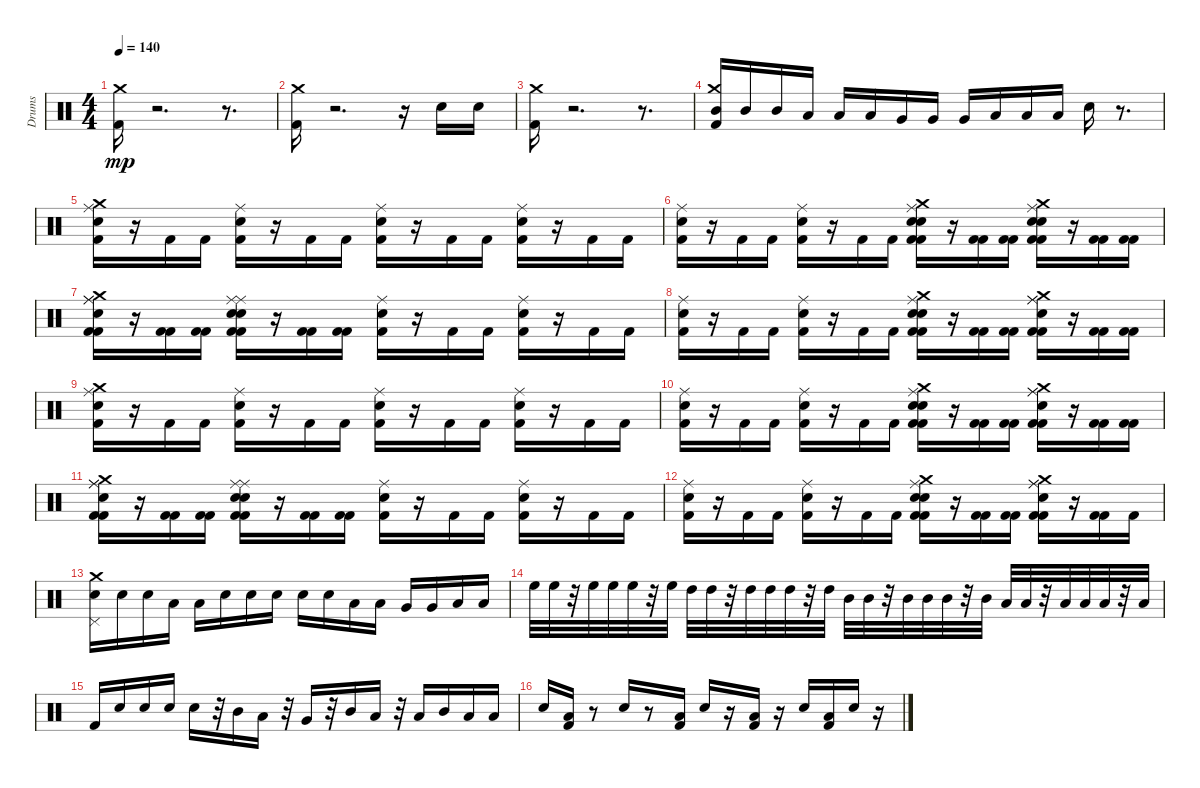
\track ("Drums" "Drums") {instrument percussion}
\staff {score}
\articulation defaults
\ts (4 4)
\tempo 140
\clef neutral
\ks c
("Kick (hit) 2" "Crash medium (hit)").16{dy mp} r.2{d} r.8{d} |
("Crash medium (hit)" "Kick (hit) 2").16 r.2{d} r.16 "Electric Snare (hit)".16 "Electric Snare (hit)".16 |
("Crash medium (hit)" "Kick (hit) 2").16 r.2{d} r.8{d} |
("Mid Tom (hit)" "Crash medium (hit)" "Kick (hit) 2").16 "Mid Tom (hit)".16 "Mid Tom (hit)".16 "Low Tom (hit)".16 "Low Tom (hit)".16 "Low Tom (hit)".16 "Very Low Tom (hit)".16 "Very Low Tom (hit)".16 "Very Low Tom (hit)".16 "Low Tom (hit)".16 "Low Tom (hit)".16 "Low Tom (hit)".16 "Electric Snare (hit)".16 r.8{d} |
("Crash medium (hit)" "Kick (hit) 2" "Electric Snare (hit)" "Ride (middle)").16 r.16 "Kick (hit) 2".16 "Kick (hit) 2".16 ("Ride (middle)" "Electric Snare (hit)" "Kick (hit) 2").16 r.16 "Kick (hit) 2".16 "Kick (hit) 2".16 ("Electric Snare (hit)" "Ride (middle)" "Kick (hit) 2").16 r.16 "Kick (hit) 2".16 "Kick (hit) 2".16 ("Electric Snare (hit)" "Ride (middle)" "Kick (hit) 2").16 r.16 "Kick (hit) 2".16 "Kick (hit) 2".16 |
("Kick (hit) 2" "Electric Snare (hit)" "Ride (middle)").16 r.16 "Kick (hit) 2".16 "Kick (hit) 2".16 ("Ride (middle)" "Kick (hit) 2" "Electric Snare (hit)").16 r.16 "Kick (hit) 2".16 "Kick (hit) 2".16 ("Crash medium (hit)" "Electric Snare (hit)" "Ride (middle)" "Kick (hit) 2" "Electric Snare (hit)" "Kick (hit) 2").16 r.16 ("Kick (hit) 2" "Kick (hit) 2").16 ("Kick (hit) 2" "Kick (hit) 2").16 ("Crash medium (hit)" "Kick (hit) 2" "Electric Snare (hit)" "Kick (hit) 2" "Ride (middle)" "Electric Snare (hit)").16 r.16 ("Kick (hit) 2" "Kick (hit) 2").16 ("Kick (hit) 2" "Kick (hit) 2").16 |
("Ride (middle)" "Crash medium (hit)" "Kick (hit) 2" "Ride (middle)" "Kick (hit) 2" "Electric Snare (hit)").16 r.16 ("Kick (hit) 2" "Kick (hit) 2").16 ("Kick (hit) 2" "Kick (hit) 2").16 ("Ride (middle)" "Electric Snare (hit)" "Electric Snare (hit)" "Kick (hit) 2" "Ride (middle)" "Kick (hit) 2").16 r.16 ("Kick (hit) 2" "Kick (hit) 2").16 ("Kick (hit) 2" "Kick (hit) 2").16 ("Electric Snare (hit)" "Ride (middle)" "Kick (hit) 2").16 r.16 "Kick (hit) 2".16 "Kick (hit) 2".16 ("Ride (middle)" "Electric Snare (hit)" "Kick (hit) 2").16 r.16 "Kick (hit) 2".16 "Kick (hit) 2".16 |
("Kick (hit) 2" "Electric Snare (hit)" "Ride (middle)").16 r.16 "Kick (hit) 2".16 "Kick (hit) 2".16 ("Ride (middle)" "Electric Snare (hit)" "Kick (hit) 2").16 r.16 "Kick (hit) 2".16 "Kick (hit) 2".16 ("Ride (middle)" "Kick (hit) 2" "Crash medium (hit)" "Kick (hit) 2" "Electric Snare (hit)" "Electric Snare (hit)").16 r.16 ("Kick (hit) 2" "Kick (hit) 2").16 ("Kick (hit) 2" "Kick (hit) 2").16 ("Electric Snare (hit)" "Kick (hit) 2" "Ride (middle)" "Kick (hit) 2" "Crash medium (hit)" "Ride (middle)").16 r.16 ("Kick (hit) 2" "Kick (hit) 2").16 ("Kick (hit) 2" "Kick (hit) 2").16 |
("Ride (middle)" "Crash medium (hit)" "Electric Snare (hit)" "Kick (hit) 2").16 r.16 "Kick (hit) 2".16 "Kick (hit) 2".16 ("Ride (middle)" "Kick (hit) 2" "Electric Snare (hit)").16 r.16 "Kick (hit) 2".16 "Kick (hit) 2".16 ("Electric Snare (hit)" "Kick (hit) 2" "Ride (middle)").16 r.16 "Kick (hit) 2".16 "Kick (hit) 2".16 ("Electric Snare (hit)" "Ride (middle)" "Kick (hit) 2").16 r.16 "Kick (hit) 2".16 "Kick (hit) 2".16 |
("Ride (middle)" "Electric Snare (hit)" "Kick (hit) 2").16 r.16 "Kick (hit) 2".16 "Kick (hit) 2".16 ("Electric Snare (hit)" "Kick (hit) 2" "Ride (middle)").16 r.16 "Kick (hit) 2".16 "Kick (hit) 2".16 ("Kick (hit) 2" "Electric Snare (hit)" "Kick (hit) 2" "Electric Snare (hit)" "Ride (middle)" "Crash medium (hit)").16 r.16 ("Kick (hit) 2" "Kick (hit) 2").16 ("Kick (hit) 2" "Kick (hit) 2").16 ("Electric Snare (hit)" "Crash medium (hit)" "Kick (hit) 2" "Ride (middle)" "Kick (hit) 2" "Ride (middle)").16 r.16 ("Kick (hit) 2" "Kick (hit) 2").16 ("Kick (hit) 2" "Kick (hit) 2").16 |
("Kick (hit) 2" "Crash medium (hit)" "Kick (hit) 2" "Ride (middle)" "Electric Snare (hit)" "Ride (middle)").16 r.16 ("Kick (hit) 2" "Kick (hit) 2").16 ("Kick (hit) 2" "Kick (hit) 2").16 ("Electric Snare (hit)" "Kick (hit) 2" "Electric Snare (hit)" "Ride (middle)" "Kick (hit) 2" "Ride (middle)").16 r.16 ("Kick (hit) 2" "Kick (hit) 2").16 ("Kick (hit) 2" "Kick (hit) 2").16 ("Electric Snare (hit)" "Kick (hit) 2" "Ride (middle)").16 r.16 "Kick (hit) 2".16 "Kick (hit) 2".16 ("Ride (middle)" "Electric Snare (hit)" "Kick (hit) 2").16 r.16 "Kick (hit) 2".16 "Kick (hit) 2".16 |
("Kick (hit) 2" "Ride (middle)" "Electric Snare (hit)").16 r.16 "Kick (hit) 2".16 "Kick (hit) 2".16 ("Kick (hit) 2" "Ride (middle)" "Electric Snare (hit)").16 r.16 "Kick (hit) 2".16 "Kick (hit) 2".16 ("Electric Snare (hit)" "Ride (middle)" "Kick (hit) 2" "Kick (hit) 2" "Crash medium (hit)" "Electric Snare (hit)").16 r.16 ("Kick (hit) 2" "Kick (hit) 2").16 ("Kick (hit) 2" "Kick (hit) 2").16 ("Ride (middle)" "Kick (hit) 2" "Kick (hit) 2" "Crash medium (hit)" "Electric Snare (hit)" "Ride (middle)").16 r.16 ("Kick (hit) 2" "Kick (hit) 2").16 "Kick (hit) 2".16 |
("Crash medium (hit)" "Pedal Hi-Hat (hit)" "Electric Snare (hit)").16 "Electric Snare (hit)".16 "Electric Snare (hit)".16 "Low Tom (hit)".16 "Low Tom (hit)".16 "Electric Snare (hit)".16 "Electric Snare (hit)".16 "Electric Snare (hit)".16 "Electric Snare (hit)".16 "Electric Snare (hit)".16 "Low Tom (hit)".16 "Low Tom (hit)".16 "Very Low Tom (hit)".16 "Very Low Tom (hit)".16 "Low Floor Tom (hit)".16 "Low Floor Tom (hit)".16 |
"High Floor Tom (hit)".32 "High Floor Tom (hit)".32 r.32 "High Floor Tom (hit)".32 "High Floor Tom (hit)".32 "High Floor Tom (hit)".32 r.32 "High Floor Tom (hit)".32 "High Tom (hit)".32 "High Tom (hit)".32 r.32 "High Tom (hit)".32 "High Tom (hit)".32 "High Tom (hit)".32 r.32 "High Tom (hit)".32 "Mid Tom (hit)".32 "Mid Tom (hit)".32 r.32 "Mid Tom (hit)".32 "Mid Tom (hit)".32 "Mid Tom (hit)".32 r.32 "Mid Tom (hit)".32 "Low Tom (hit)".32 "Low Tom (hit)".32 r.32 "Low Tom (hit)".32 "Low Tom (hit)".32 "Low Tom (hit)".32 r.32 "Low Tom (hit)".32 |
"Kick (hit) 2".16 "Electric Snare (hit)".16 "Electric Snare (hit)".16 "Electric Snare (hit)".16 "Electric Snare (hit)".16 r.32 "Mid Tom (hit)".16 "Low Tom (hit)".16 r.32 "Very Low Tom (hit)".16 r.32 "Mid Tom (hit)".16 "Low Tom (hit)".16 r.32 "Low Floor Tom (hit)".16 "Mid Tom (hit)".16 "Low Tom (hit)".16 "Low Floor Tom (hit)".16 |
"Electric Snare (hit)".16 ("Low Floor Tom (hit)" "Kick (hit) 2").16 r.8 "Electric Snare (hit)".16 r.8 ("Low Floor Tom (hit)" "Kick (hit) 2").16 "Electric Snare (hit)".16 r.16 ("Kick (hit) 2" "Low Floor Tom (hit)").16 r.16 "Electric Snare (hit)".16 ("Low Floor Tom (hit)" "Kick (hit) 2").16 "Electric Snare (hit)".16 r.16
